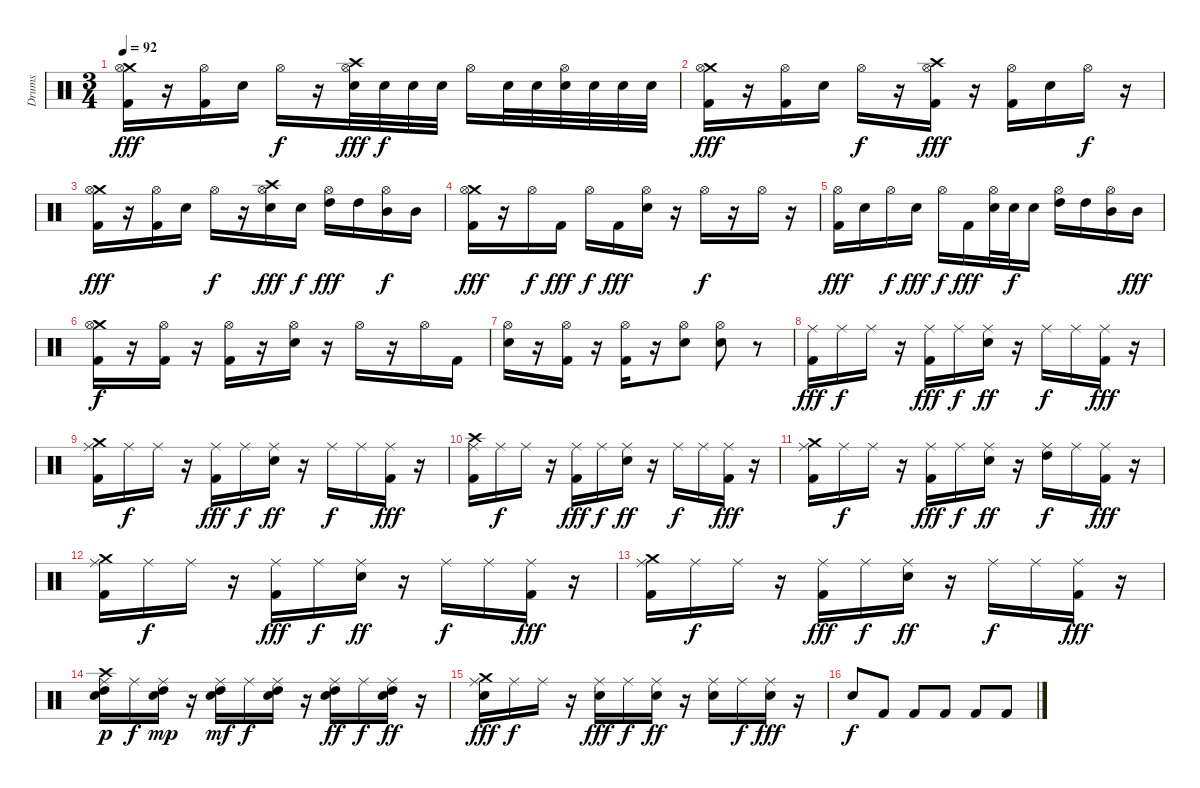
\track ("Drums" "Drums") {instrument percussion}
\staff {score}
\articulation defaults
\ts (3 4)
\tempo 92
\clef neutral
\ks c
("Crash medium (hit)" "Hi-Hat (open)" "Kick (hit) 2").16{dy fff} r.16 ("Hi-Hat (open)" "Kick (hit) 2").16 "Snare (hit) 2".16 "Hi-Hat (open)".16{dy f} r.16 ("Crash high (hit)" "Hi-Hat (open)" "Snare (hit) 2").32{dy fff} "Snare (hit) 2".32{dy f} "Snare (hit) 2".32 "Snare (hit) 2".32 "Hi-Hat (open)".16 "Snare (hit) 2".32 "Snare (hit) 2".32 ("Hi-Hat (open)" "Snare (hit) 2").32 "Snare (hit) 2".32 "Snare (hit) 2".32 "Snare (hit) 2".32 |
("Crash medium (hit)" "Hi-Hat (open)" "Kick (hit) 2").16{dy fff} r.16 ("Hi-Hat (open)" "Kick (hit) 2").16 "Snare (hit) 2".16 "Hi-Hat (open)".16{dy f} r.16 ("Crash high (hit)" "Hi-Hat (open)" "Kick (hit) 2").16{dy fff} r.16 ("Hi-Hat (open)" "Kick (hit) 2").16 "Snare (hit) 2".16 "Hi-Hat (open)".16{dy f} r.16 |
("Crash medium (hit)" "Hi-Hat (open)" "Kick (hit) 2").16{dy fff} r.16 ("Hi-Hat (open)" "Kick (hit) 2").16 "Snare (hit) 2".16 "Hi-Hat (open)".16{dy f} r.16 ("Crash high (hit)" "Hi-Hat (open)" "Snare (hit) 2").16{dy fff} "Snare (hit) 2".16{dy f} ("Hi-Hat (open)" "High Tom (hit)").16{dy fff} "High Tom (hit)".16 ("Hi-Hat (open)" "Mid Tom (hit)").16{dy f} "Mid Tom (hit)".16 |
("Crash medium (hit)" "Hi-Hat (open)" "Kick (hit) 2").16{dy fff} r.16 "Hi-Hat (open)".16{dy f} "Kick (hit) 2".16{dy fff} "Hi-Hat (open)".16{dy f} "Kick (hit) 2".16{dy fff} ("Hi-Hat (open)" "Snare (hit) 2").16 r.16 "Hi-Hat (open)".16{dy f} r.16 "Hi-Hat (open)".16 r.16 |
("Hi-Hat (open)" "Kick (hit) 2").16{dy fff} "Snare (hit) 2".16 "Hi-Hat (open)".16{dy f} "Snare (hit) 2".16{dy fff} "Hi-Hat (open)".16{dy f} "Kick (hit) 2".16{dy fff} ("Hi-Hat (open)" "Snare (hit) 2").32 "Snare (hit) 2".32{dy f} "Snare (hit) 2".16 ("Hi-Hat (open)" "High Tom (hit)").16 "High Tom (hit)".16 ("Hi-Hat (open)" "Mid Tom (hit)").16 "Mid Tom (hit)".16{dy fff} |
("Crash medium (hit)" "Hi-Hat (open)" "Kick (hit) 2").16{dy f} r.16 ("Hi-Hat (open)" "Kick (hit) 2").16 r.16 ("Hi-Hat (open)" "Kick (hit) 2").16 r.16 ("Hi-Hat (open)" "Snare (hit) 2").16 r.16 "Hi-Hat (open)".16 r.16 "Hi-Hat (open)".16 "Kick (hit) 2".16 |
("Hi-Hat (open)" "Snare (hit) 2").16 r.16 ("Hi-Hat (open)" "Kick (hit) 2").16 r.16 ("Hi-Hat (open)" "Kick (hit) 2").16 r.16 ("Hi-Hat (open)" "Snare (hit) 2").8 ("Hi-Hat (open)" "Snare (hit) 2").8 r.8 |
("Ride (middle)" "Kick (hit) 2").16{dy fff} "Ride (middle)".16{dy f} "Ride (middle)".16 r.16 ("Ride (middle)" "Kick (hit) 2").16{dy fff} "Ride (middle)".16{dy f} ("Ride (middle)" "Snare (hit) 2").16{dy ff} r.16 "Ride (middle)".16{dy f} "Ride (middle)".16 ("Ride (middle)" "Kick (hit) 2").16{dy fff} r.16 |
("Crash medium (hit)" "Ride (middle)" "Kick (hit) 2").16 "Ride (middle)".16{dy f} "Ride (middle)".16 r.16 ("Ride (middle)" "Kick (hit) 2").16{dy fff} "Ride (middle)".16{dy f} ("Ride (middle)" "Snare (hit) 2").16{dy ff} r.16 "Ride (middle)".16{dy f} "Ride (middle)".16 ("Ride (middle)" "Kick (hit) 2").16{dy fff} r.16 |
("Crash high (hit)" "Ride (middle)" "Kick (hit) 2").16 "Ride (middle)".16{dy f} "Ride (middle)".16 r.16 ("Ride (middle)" "Kick (hit) 2").16{dy fff} "Ride (middle)".16{dy f} ("Ride (middle)" "Snare (hit) 2").16{dy ff} r.16 "Ride (middle)".16{dy f} "Ride (middle)".16 ("Ride (middle)" "Kick (hit) 2").16{dy fff} r.16 |
("Crash medium (hit)" "Ride (middle)" "Kick (hit) 2").16 "Ride (middle)".16{dy f} "Ride (middle)".16 r.16 ("Ride (middle)" "Kick (hit) 2").16{dy fff} "Ride (middle)".16{dy f} ("Ride (middle)" "Snare (hit) 2").16{dy ff} r.16 ("Ride (middle)" "High Tom (hit)").16{dy f} "Ride (middle)".16 ("Ride (middle)" "Kick (hit) 2").16{dy fff} r.16 |
("Crash medium (hit)" "Ride (middle)" "Kick (hit) 2").16 "Ride (middle)".16{dy f} "Ride (middle)".16 r.16 ("Ride (middle)" "Kick (hit) 2").16{dy fff} "Ride (middle)".16{dy f} ("Ride (middle)" "Snare (hit) 2").16{dy ff} r.16 "Ride (middle)".16{dy f} "Ride (middle)".16 ("Ride (middle)" "Kick (hit) 2").16{dy fff} r.16 |
("Crash medium (hit)" "Ride (middle)" "Kick (hit) 2").16 "Ride (middle)".16{dy f} "Ride (middle)".16 r.16 ("Ride (middle)" "Kick (hit) 2").16{dy fff} "Ride (middle)".16{dy f} ("Ride (middle)" "Snare (hit) 2").16{dy ff} r.16 "Ride (middle)".16{dy f} "Ride (middle)".16 ("Ride (middle)" "Kick (hit) 2").16{dy fff} r.16 |
("Crash high (hit)" "Ride (middle)" "High Tom (hit)" "Snare (hit) 2").16{dy p} "Ride (middle)".16{dy f} ("Ride (middle)" "High Tom (hit)" "Snare (hit) 2").16{dy mp} r.16 ("Ride (middle)" "High Tom (hit)" "Snare (hit) 2").16{dy mf} "Ride (middle)".16{dy f} ("Ride (middle)" "High Tom (hit)" "Snare (hit) 2").16 r.16 ("Ride (middle)" "High Tom (hit)" "Snare (hit) 2").16{dy ff} "Ride (middle)".16{dy f} ("Ride (middle)" "High Tom (hit)" "Snare (hit) 2").16{dy ff} r.16 |
("Crash medium (hit)" "Ride (middle)" "Snare (hit) 2").16{dy fff} "Ride (middle)".16{dy f} "Ride (middle)".16 r.16 ("Ride (middle)" "Snare (hit) 2").16{dy fff} "Ride (middle)".16{dy f} ("Ride (middle)" "Snare (hit) 2").16{dy ff} r.16 ("Ride (middle)" "Snare (hit) 2").16 "Ride (middle)".16{dy f} ("Ride (middle)" "Snare (hit) 2").16{dy fff} r.16 |
"Snare (hit) 2".8{dy f} "Kick (hit) 2".8 "Kick (hit) 2".8 "Kick (hit) 2".8 "Kick (hit) 2".8 "Kick (hit) 2".8
